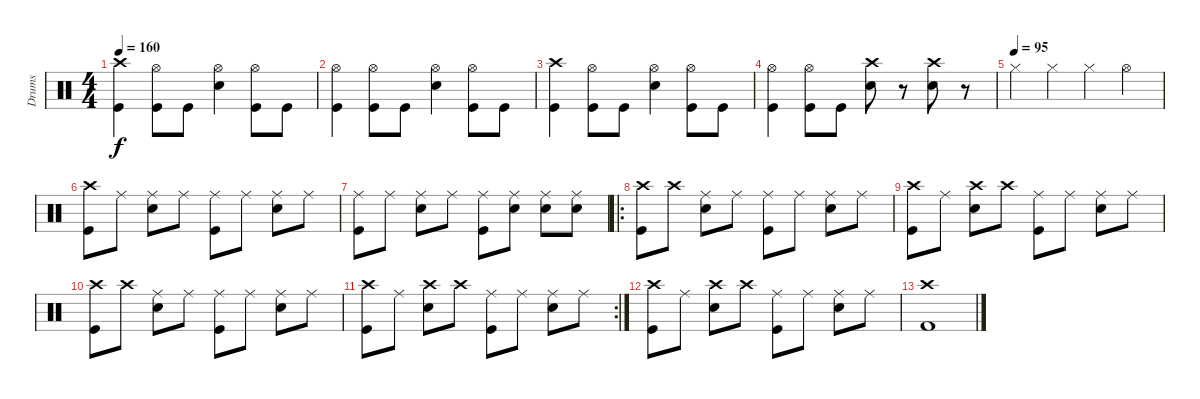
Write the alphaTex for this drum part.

\track ("Drums" "Drums") {instrument percussion}
\staff {score}
\articulation defaults
\ts (4 4)
\tempo 160
\clef neutral
\ks c
("Crash high (hit)" "Kick (hit)").4{dy f} ("Hi-Hat (open)" "Kick (hit)").8 "Kick (hit)".8 ("Hi-Hat (open)" "Snare (hit) 2").4 ("Hi-Hat (open)" "Kick (hit)").8 "Kick (hit)".8 |
("Hi-Hat (open)" "Kick (hit)").4 ("Hi-Hat (open)" "Kick (hit)").8 "Kick (hit)".8 ("Hi-Hat (open)" "Snare (hit) 2").4 ("Hi-Hat (open)" "Kick (hit)").8 "Kick (hit)".8 |
("Crash high (hit)" "Kick (hit)").4 ("Hi-Hat (open)" "Kick (hit)").8 "Kick (hit)".8 ("Hi-Hat (open)" "Snare (hit) 2").4 ("Hi-Hat (open)" "Kick (hit)").8 "Kick (hit)".8 |
("Hi-Hat (open)" "Kick (hit)").4 ("Hi-Hat (open)" "Kick (hit)").8 "Kick (hit)".8 ("Crash high (hit)" "Snare (hit) 2").8 r.8 ("Crash high (hit)" "Snare (hit) 2").8 r.8 |
\tempo (95)
"Hi-Hat (closed)".4 "Hi-Hat (closed)".4 "Hi-Hat (closed)".4 "Hi-Hat (open)".4 |
("Crash high (hit)" "Kick (hit)").8 "Ride (middle)".8 ("Ride (middle)" "Snare (hit) 2").8 "Ride (middle)".8 ("Ride (middle)" "Kick (hit)").8 "Ride (middle)".8 ("Ride (middle)" "Snare (hit) 2").8 "Ride (middle)".8 |
("Ride (middle)" "Kick (hit)").8 "Ride (middle)".8 ("Ride (middle)" "Snare (hit) 2").8 "Ride (middle)".8 ("Ride (middle)" "Kick (hit)").8 ("Ride (middle)" "Snare (hit) 2").8 ("Ride (middle)" "Snare (hit) 2").8 ("Ride (middle)" "Snare (hit) 2").8 |
\ro
("Crash high (hit)" "Kick (hit)").8 "Crash high (hit)".8 ("Ride (middle)" "Snare (hit) 2").8 "Ride (middle)".8 ("Ride (middle)" "Kick (hit)").8 "Ride (middle)".8 ("Ride (middle)" "Snare (hit) 2").8 "Ride (middle)".8 |
("Crash high (hit)" "Kick (hit)").8 "Ride (middle)".8 ("Crash high (hit)" "Snare (hit) 2").8 "Crash high (hit)".8 ("Ride (middle)" "Kick (hit)").8 "Ride (middle)".8 ("Ride (middle)" "Snare (hit) 2").8 "Ride (middle)".8 |
("Crash high (hit)" "Kick (hit)").8 "Crash high (hit)".8 ("Ride (middle)" "Snare (hit) 2").8 "Ride (middle)".8 ("Ride (middle)" "Kick (hit)").8 "Ride (middle)".8 ("Ride (middle)" "Snare (hit) 2").8 "Ride (middle)".8 |
\rc 2
("Crash high (hit)" "Kick (hit)").8 "Ride (middle)".8 ("Crash high (hit)" "Snare (hit) 2").8 "Crash high (hit)".8 ("Ride (middle)" "Kick (hit)").8 "Ride (middle)".8 ("Ride (middle)" "Snare (hit) 2").8 "Ride (middle)".8 |
("Crash high (hit)" "Kick (hit)").8 "Ride (middle)".8 ("Crash high (hit)" "Snare (hit) 2").8 "Crash high (hit)".8 ("Ride (middle)" "Kick (hit)").8 "Ride (middle)".8 ("Ride (middle)" "Snare (hit) 2").8 "Ride (middle)".8 |
("Crash high (hit)" "Kick (hit) 2").1
